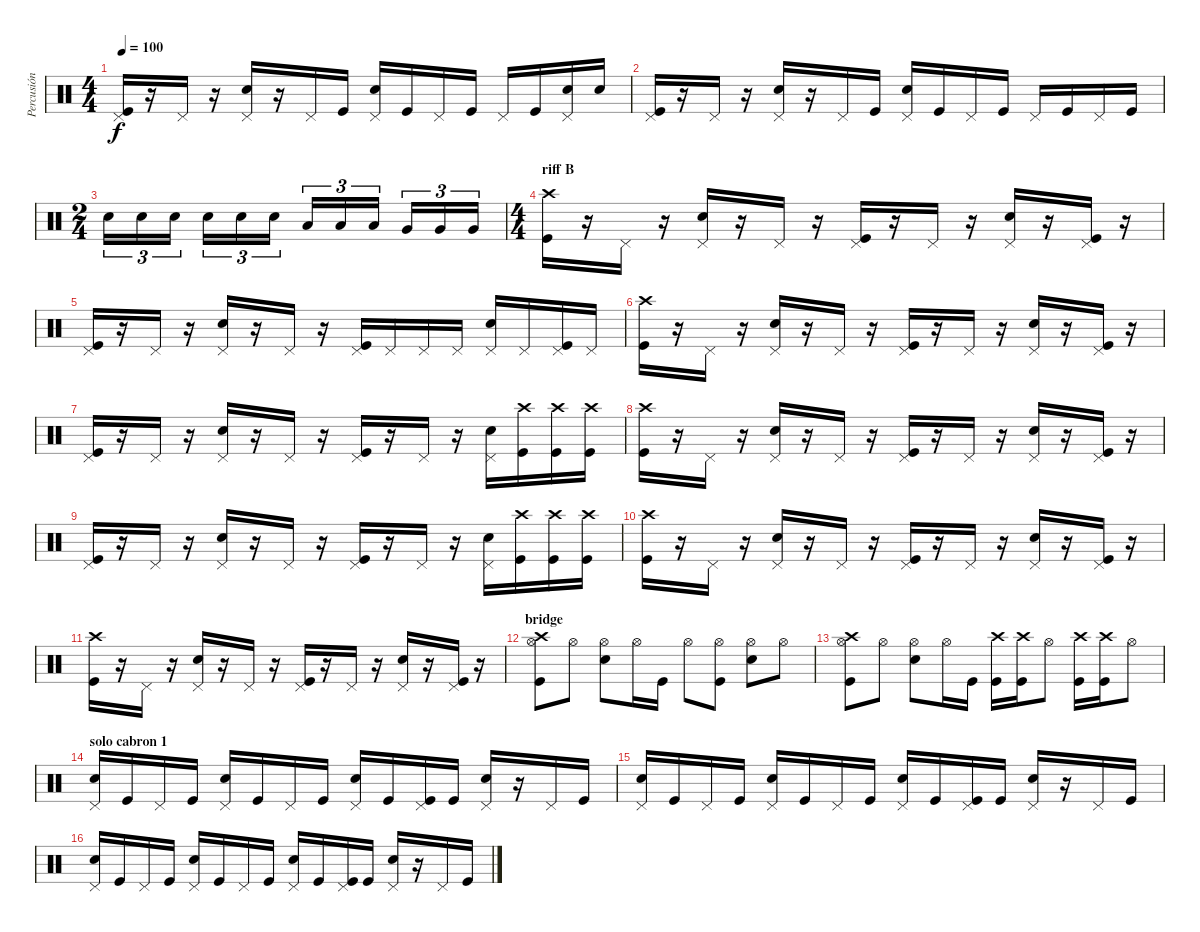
\track ("Percusión" "Percusión") {instrument percussion}
\staff {score}
\articulation defaults
\ts (4 4)
\tempo 100
\clef neutral
\ks c
("Pedal Hi-Hat (hit)" "Kick (hit)").16{dy f} r.16 "Pedal Hi-Hat (hit)".16 r.16 ("Pedal Hi-Hat (hit)" "Electric Snare (hit)").16 r.16 "Pedal Hi-Hat (hit)".16 "Kick (hit)".16 ("Pedal Hi-Hat (hit)" "Electric Snare (hit)").16 "Kick (hit)".16 "Pedal Hi-Hat (hit)".16 "Kick (hit)".16 "Pedal Hi-Hat (hit)".16 "Kick (hit)".16 ("Pedal Hi-Hat (hit)" "Electric Snare (hit)").16 "Electric Snare (hit)".16 |
("Pedal Hi-Hat (hit)" "Kick (hit)").16 r.16 "Pedal Hi-Hat (hit)".16 r.16 ("Pedal Hi-Hat (hit)" "Electric Snare (hit)").16 r.16 "Pedal Hi-Hat (hit)".16 "Kick (hit)".16 ("Pedal Hi-Hat (hit)" "Electric Snare (hit)").16 "Kick (hit)".16 "Pedal Hi-Hat (hit)".16 "Kick (hit)".16 "Pedal Hi-Hat (hit)".16 "Kick (hit)".16 "Pedal Hi-Hat (hit)".16 "Kick (hit)".16 |
\ts (2 4)
"Electric Snare (hit)".16{tu (3 2)} "Electric Snare (hit)".16{tu (3 2)} "Electric Snare (hit)".16{tu (3 2)} "Electric Snare (hit)".16{tu (3 2)} "Electric Snare (hit)".16{tu (3 2)} "Electric Snare (hit)".16{tu (3 2)} "Low Tom (hit)".16{tu (3 2)} "Low Tom (hit)".16{tu (3 2)} "Low Tom (hit)".16{tu (3 2)} "Very Low Tom (hit)".16{tu (3 2)} "Very Low Tom (hit)".16{tu (3 2)} "Very Low Tom (hit)".16{tu (3 2)} |
\ts (4 4)
\section ("" "riff B")
("Crash high (hit)" "Kick (hit)").16 r.16 "Pedal Hi-Hat (hit)".16 r.16 ("Pedal Hi-Hat (hit)" "Electric Snare (hit)").16 r.16 "Pedal Hi-Hat (hit)".16 r.16 ("Pedal Hi-Hat (hit)" "Kick (hit)").16 r.16 "Pedal Hi-Hat (hit)".16 r.16 ("Pedal Hi-Hat (hit)" "Electric Snare (hit)").16 r.16 ("Pedal Hi-Hat (hit)" "Kick (hit)").16 r.16 |
("Pedal Hi-Hat (hit)" "Kick (hit)").16 r.16 "Pedal Hi-Hat (hit)".16 r.16 ("Pedal Hi-Hat (hit)" "Electric Snare (hit)").16 r.16 "Pedal Hi-Hat (hit)".16 r.16 ("Pedal Hi-Hat (hit)" "Kick (hit)").16 "Pedal Hi-Hat (hit)".16 "Pedal Hi-Hat (hit)".16 "Pedal Hi-Hat (hit)".16 ("Pedal Hi-Hat (hit)" "Electric Snare (hit)").16 "Pedal Hi-Hat (hit)".16 ("Pedal Hi-Hat (hit)" "Kick (hit)").16 "Pedal Hi-Hat (hit)".16 |
("Crash high (hit)" "Kick (hit)").16 r.16 "Pedal Hi-Hat (hit)".16 r.16 ("Pedal Hi-Hat (hit)" "Electric Snare (hit)").16 r.16 "Pedal Hi-Hat (hit)".16 r.16 ("Pedal Hi-Hat (hit)" "Kick (hit)").16 r.16 "Pedal Hi-Hat (hit)".16 r.16 ("Pedal Hi-Hat (hit)" "Electric Snare (hit)").16 r.16 ("Pedal Hi-Hat (hit)" "Kick (hit)").16 r.16 |
("Pedal Hi-Hat (hit)" "Kick (hit)").16 r.16 "Pedal Hi-Hat (hit)".16 r.16 ("Pedal Hi-Hat (hit)" "Electric Snare (hit)").16 r.16 "Pedal Hi-Hat (hit)".16 r.16 ("Pedal Hi-Hat (hit)" "Kick (hit)").16 r.16 "Pedal Hi-Hat (hit)".16 r.16 ("Pedal Hi-Hat (hit)" "Electric Snare (hit)").16 ("Crash high (hit)" "Kick (hit)").16 ("Crash high (hit)" "Kick (hit)").16 ("Crash high (hit)" "Kick (hit)").16 |
("Crash high (hit)" "Kick (hit)").16 r.16 "Pedal Hi-Hat (hit)".16 r.16 ("Pedal Hi-Hat (hit)" "Electric Snare (hit)").16 r.16 "Pedal Hi-Hat (hit)".16 r.16 ("Pedal Hi-Hat (hit)" "Kick (hit)").16 r.16 "Pedal Hi-Hat (hit)".16 r.16 ("Pedal Hi-Hat (hit)" "Electric Snare (hit)").16 r.16 ("Pedal Hi-Hat (hit)" "Kick (hit)").16 r.16 |
("Pedal Hi-Hat (hit)" "Kick (hit)").16 r.16 "Pedal Hi-Hat (hit)".16 r.16 ("Pedal Hi-Hat (hit)" "Electric Snare (hit)").16 r.16 "Pedal Hi-Hat (hit)".16 r.16 ("Pedal Hi-Hat (hit)" "Kick (hit)").16 r.16 "Pedal Hi-Hat (hit)".16 r.16 ("Pedal Hi-Hat (hit)" "Electric Snare (hit)").16 ("Crash high (hit)" "Kick (hit)").16 ("Crash high (hit)" "Kick (hit)").16 ("Crash high (hit)" "Kick (hit)").16 |
("Crash high (hit)" "Kick (hit)").16 r.16 "Pedal Hi-Hat (hit)".16 r.16 ("Pedal Hi-Hat (hit)" "Electric Snare (hit)").16 r.16 "Pedal Hi-Hat (hit)".16 r.16 ("Pedal Hi-Hat (hit)" "Kick (hit)").16 r.16 "Pedal Hi-Hat (hit)".16 r.16 ("Pedal Hi-Hat (hit)" "Electric Snare (hit)").16 r.16 ("Pedal Hi-Hat (hit)" "Kick (hit)").16 r.16 |
("Crash high (hit)" "Kick (hit)").16 r.16 "Pedal Hi-Hat (hit)".16 r.16 ("Pedal Hi-Hat (hit)" "Electric Snare (hit)").16 r.16 "Pedal Hi-Hat (hit)".16 r.16 ("Pedal Hi-Hat (hit)" "Kick (hit)").16 r.16 "Pedal Hi-Hat (hit)".16 r.16 ("Pedal Hi-Hat (hit)" "Electric Snare (hit)").16 r.16 ("Pedal Hi-Hat (hit)" "Kick (hit)").16 r.16 |
\section ("" "bridge")
("Crash high (hit)" "Hi-Hat (open)" "Kick (hit)").8 "Hi-Hat (open)".8 ("Hi-Hat (open)" "Electric Snare (hit)").8 "Hi-Hat (open)".16 "Kick (hit)".16 "Hi-Hat (open)".8 ("Hi-Hat (open)" "Kick (hit)").8 ("Hi-Hat (open)" "Electric Snare (hit)").8 "Hi-Hat (open)".8 |
("Crash high (hit)" "Hi-Hat (open)" "Kick (hit)").8 "Hi-Hat (open)".8 ("Hi-Hat (open)" "Electric Snare (hit)").8 "Hi-Hat (open)".16 "Kick (hit)".16 ("Crash high (hit)" "Kick (hit)").16 ("Crash high (hit)" "Kick (hit)").16 "Hi-Hat (open)".8 ("Crash high (hit)" "Kick (hit)").16 ("Crash high (hit)" "Kick (hit)").16 "Hi-Hat (open)".8 |
\section ("" "solo cabron 1")
("Pedal Hi-Hat (hit)" "Electric Snare (hit)").16 "Kick (hit)".16 "Pedal Hi-Hat (hit)".16 "Kick (hit)".16 ("Pedal Hi-Hat (hit)" "Electric Snare (hit)").16 "Kick (hit)".16 "Pedal Hi-Hat (hit)".16 "Kick (hit)".16 ("Pedal Hi-Hat (hit)" "Electric Snare (hit)").16 "Kick (hit)".16 ("Pedal Hi-Hat (hit)" "Kick (hit)").16 "Kick (hit)".16 ("Pedal Hi-Hat (hit)" "Electric Snare (hit)").16 r.16 "Pedal Hi-Hat (hit)".16 "Kick (hit)".16 |
("Pedal Hi-Hat (hit)" "Electric Snare (hit)").16 "Kick (hit)".16 "Pedal Hi-Hat (hit)".16 "Kick (hit)".16 ("Pedal Hi-Hat (hit)" "Electric Snare (hit)").16 "Kick (hit)".16 "Pedal Hi-Hat (hit)".16 "Kick (hit)".16 ("Pedal Hi-Hat (hit)" "Electric Snare (hit)").16 "Kick (hit)".16 ("Pedal Hi-Hat (hit)" "Kick (hit)").16 "Kick (hit)".16 ("Pedal Hi-Hat (hit)" "Electric Snare (hit)").16 r.16 "Pedal Hi-Hat (hit)".16 "Kick (hit)".16 |
("Pedal Hi-Hat (hit)" "Electric Snare (hit)").16 "Kick (hit)".16 "Pedal Hi-Hat (hit)".16 "Kick (hit)".16 ("Pedal Hi-Hat (hit)" "Electric Snare (hit)").16 "Kick (hit)".16 "Pedal Hi-Hat (hit)".16 "Kick (hit)".16 ("Pedal Hi-Hat (hit)" "Electric Snare (hit)").16 "Kick (hit)".16 ("Pedal Hi-Hat (hit)" "Kick (hit)").16 "Kick (hit)".16 ("Pedal Hi-Hat (hit)" "Electric Snare (hit)").16 r.16 "Pedal Hi-Hat (hit)".16 "Kick (hit)".16
